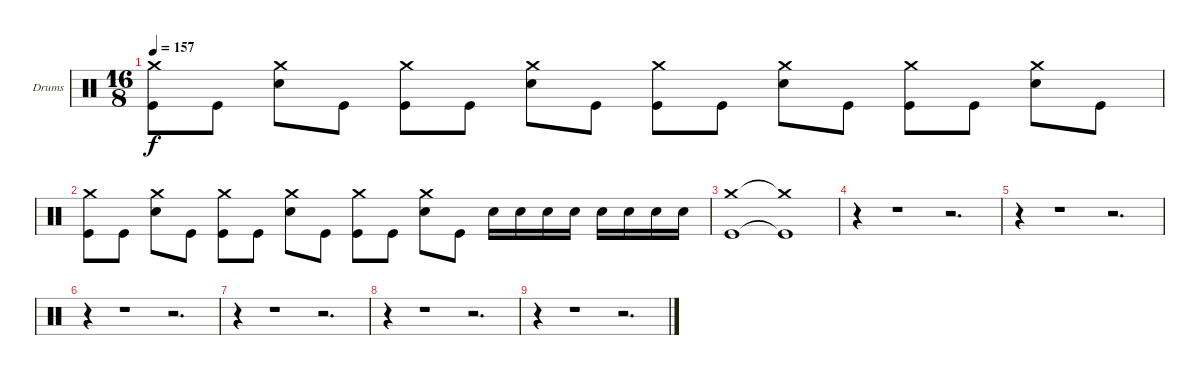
\bracketExtendMode groupsimilarinstruments
\firstSystemTrackNameOrientation horizontal
\otherSystemsTrackNameOrientation horizontal
\track ("Drumkit" "Drums") {instrument percussion}
\staff {score}
\articulation defaults
\ts (16 8)
\tempo 157
\clef neutral
\ks c
("Crash medium (hit)" "Kick (hit)").8{dy f} "Kick (hit)".8 ("Snare (hit) 2" "Crash medium (hit)").8 "Kick (hit)".8 ("Crash medium (hit)" "Kick (hit)").8 "Kick (hit)".8 ("Snare (hit) 2" "Crash medium (hit)").8 "Kick (hit)".8 ("Crash medium (hit)" "Kick (hit)").8 "Kick (hit)".8 ("Snare (hit) 2" "Crash medium (hit)").8 "Kick (hit)".8 ("Crash medium (hit)" "Kick (hit)").8 "Kick (hit)".8 ("Snare (hit) 2" "Crash medium (hit)").8 "Kick (hit)".8 |
("Crash medium (hit)" "Kick (hit)").8 "Kick (hit)".8 ("Snare (hit) 2" "Crash medium (hit)").8 "Kick (hit)".8 ("Crash medium (hit)" "Kick (hit)").8 "Kick (hit)".8 ("Snare (hit) 2" "Crash medium (hit)").8 "Kick (hit)".8 ("Crash medium (hit)" "Kick (hit)").8 "Kick (hit)".8 ("Snare (hit) 2" "Crash medium (hit)").8 "Kick (hit)".8 "Snare (hit) 2".16 "Snare (hit) 2".16 "Snare (hit) 2".16 "Snare (hit) 2".16 "Snare (hit) 2".16 "Snare (hit) 2".16 "Snare (hit) 2".16 "Snare (hit) 2".16 |
("Crash medium (hit)" "Kick (hit)").1 ("Crash medium (hit)"{t} "Kick (hit)"{t}).1 |
r.4 r.1 r.2{d} |
r.4 r.1 r.2{d} |
r.4 r.1 r.2{d} |
r.4 r.1 r.2{d} |
r.4 r.1 r.2{d} |
r.4 r.1 r.2{d}
